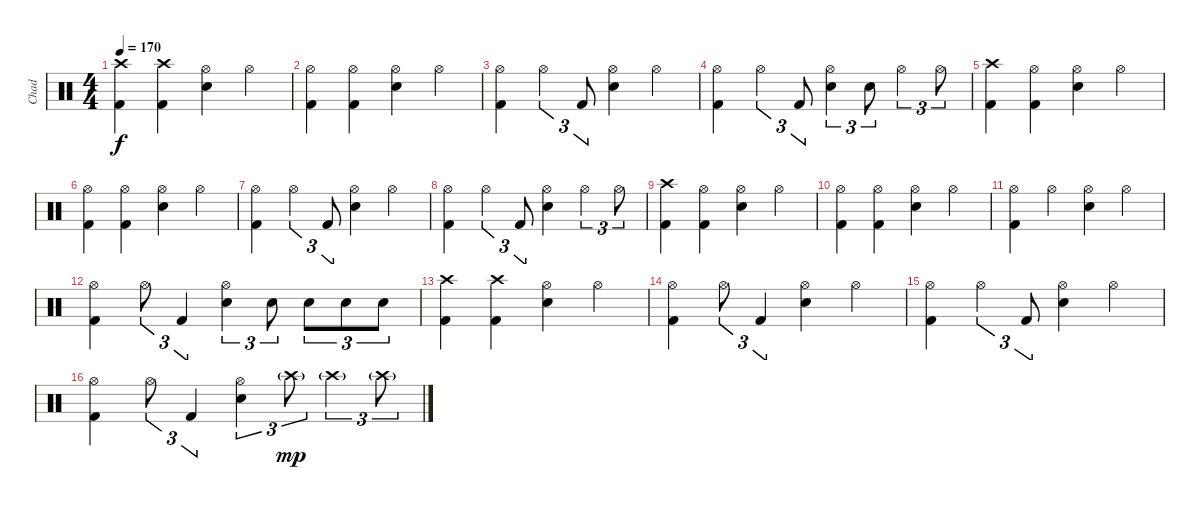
\track ("Chad" "Chad") {instrument percussion}
\staff {score}
\articulation defaults
\ts (4 4)
\tempo 170
\clef neutral
\ks c
("Crash high (hit)" "Kick (hit) 2").4{dy f} ("Crash high (hit)" "Kick (hit) 2").4 ("Hi-Hat (open)" "Snare (hit) 2").4 "Hi-Hat (open)".4 |
("Hi-Hat (open)" "Kick (hit) 2").4 ("Hi-Hat (open)" "Kick (hit) 2").4 ("Hi-Hat (open)" "Snare (hit) 2").4 "Hi-Hat (open)".4 |
("Hi-Hat (open)" "Kick (hit) 2").4 "Hi-Hat (open)".4{tu (3 2)} "Kick (hit) 2".8{tu (3 2)} ("Hi-Hat (open)" "Snare (hit) 2").4 "Hi-Hat (open)".4 |
("Hi-Hat (open)" "Kick (hit) 2").4 "Hi-Hat (open)".4{tu (3 2)} "Kick (hit) 2".8{tu (3 2)} ("Hi-Hat (open)" "Snare (hit) 2").4{tu (3 2)} "Snare (hit) 2".8{tu (3 2)} "Hi-Hat (open)".4{tu (3 2)} "Hi-Hat (open)".8{tu (3 2)} |
("Crash high (hit)" "Kick (hit) 2").4 ("Hi-Hat (open)" "Kick (hit) 2").4 ("Hi-Hat (open)" "Snare (hit) 2").4 "Hi-Hat (open)".4 |
("Hi-Hat (open)" "Kick (hit) 2").4 ("Hi-Hat (open)" "Kick (hit) 2").4 ("Hi-Hat (open)" "Snare (hit) 2").4 "Hi-Hat (open)".4 |
("Hi-Hat (open)" "Kick (hit) 2").4 "Hi-Hat (open)".4{tu (3 2)} "Kick (hit) 2".8{tu (3 2)} ("Hi-Hat (open)" "Snare (hit) 2").4 "Hi-Hat (open)".4 |
("Hi-Hat (open)" "Kick (hit) 2").4 "Hi-Hat (open)".4{tu (3 2)} "Kick (hit) 2".8{tu (3 2)} ("Hi-Hat (open)" "Snare (hit) 2").4 "Hi-Hat (open)".4{tu (3 2)} "Hi-Hat (open)".8{tu (3 2)} |
("Crash high (hit)" "Kick (hit) 2").4 ("Hi-Hat (open)" "Kick (hit) 2").4 ("Hi-Hat (open)" "Snare (hit) 2").4 "Hi-Hat (open)".4 |
("Hi-Hat (open)" "Kick (hit) 2").4 ("Hi-Hat (open)" "Kick (hit) 2").4 ("Hi-Hat (open)" "Snare (hit) 2").4 "Hi-Hat (open)".4 |
("Hi-Hat (open)" "Kick (hit) 2").4 "Hi-Hat (open)".4 ("Hi-Hat (open)" "Snare (hit) 2").4 "Hi-Hat (open)".4 |
("Hi-Hat (open)" "Kick (hit) 2").4 "Hi-Hat (open)".8{tu (3 2)} "Kick (hit) 2".4{tu (3 2)} ("Hi-Hat (open)" "Snare (hit) 2").4{tu (3 2)} "Snare (hit) 2".8{tu (3 2)} "Snare (hit) 2".8{tu (3 2)} "Snare (hit) 2".8{tu (3 2)} "Snare (hit) 2".8{tu (3 2)} |
("Crash high (hit)" "Kick (hit) 2").4 ("Crash high (hit)" "Kick (hit) 2").4 ("Hi-Hat (open)" "Snare (hit) 2").4 "Hi-Hat (open)".4 |
("Hi-Hat (open)" "Kick (hit) 2").4 "Hi-Hat (open)".8{tu (3 2)} "Kick (hit) 2".4{tu (3 2)} ("Hi-Hat (open)" "Snare (hit) 2").4 "Hi-Hat (open)".4 |
("Hi-Hat (open)" "Kick (hit) 2").4 "Hi-Hat (open)".4{tu (3 2)} "Kick (hit) 2".8{tu (3 2)} ("Hi-Hat (open)" "Snare (hit) 2").4 "Hi-Hat (open)".4 |
("Hi-Hat (open)" "Kick (hit) 2").4 "Hi-Hat (open)".8{tu (3 2)} "Kick (hit) 2".4{tu (3 2)} ("Hi-Hat (open)" "Snare (hit) 2").4{tu (3 2)} "Crash high (hit)"{g}.8{tu (3 2) dy mp} "Crash high (hit)"{g}.4{tu (3 2)} "Crash high (hit)"{g}.8{tu (3 2)}
